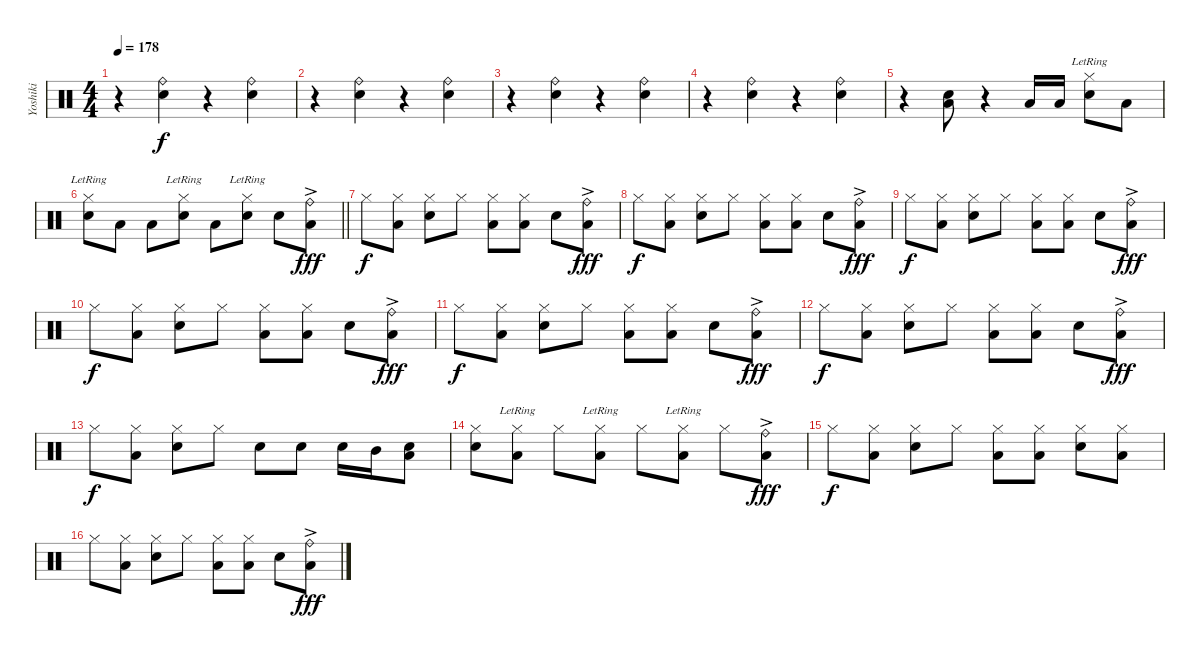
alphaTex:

\track ("Yoshiki" "Yoshiki") {instrument percussion}
\staff {score}
\articulation defaults
\ts (4 4)
\tempo 178
\clef neutral
\ks c
r.4{dy f} ("Snare (hit) 2" "Ride (bell)").4 r.4 ("Snare (hit) 2" "Ride (bell)").4 |
r.4 ("Snare (hit) 2" "Ride (bell)").4 r.4 ("Snare (hit) 2" "Ride (bell)").4 |
r.4 ("Snare (hit) 2" "Ride (bell)").4 r.4 ("Snare (hit) 2" "Ride (bell)").4 |
r.4 ("Snare (hit) 2" "Ride (bell)").4 r.4 ("Snare (hit) 2" "Ride (bell)").4 |
r.4 ("Snare (hit) 2" "Low Tom (hit)").8 r.4 "Low Floor Tom (hit)".16 "Low Floor Tom (hit)".16 ("Hi-Hat (closed)"{lr} "Snare (hit) 2").8 "Low Floor Tom (hit)".8 |
\barLineRight lightlight
("Hi-Hat (closed)"{lr} "Snare (hit) 2").8 "Low Floor Tom (hit)".8 "Low Floor Tom (hit)".8 ("Hi-Hat (closed)"{lr} "Snare (hit) 2").8 "Low Floor Tom (hit)".8 ("Hi-Hat (closed)"{lr} "Snare (hit) 2").8 "Snare (hit) 2".8 ("Ride (bell)"{ac} "Low Floor Tom (hit)").8{dy fff} |
"Hi-Hat (closed)".8{dy f} ("Hi-Hat (closed)" "Low Floor Tom (hit)").8 ("Hi-Hat (closed)" "Snare (hit) 2").8 "Hi-Hat (closed)".8 ("Hi-Hat (closed)" "Low Floor Tom (hit)").8 ("Hi-Hat (closed)" "Low Floor Tom (hit)").8 "Snare (hit) 2".8 ("Ride (bell)"{ac} "Low Floor Tom (hit)").8{dy fff} |
"Hi-Hat (closed)".8{dy f} ("Hi-Hat (closed)" "Low Floor Tom (hit)").8 ("Hi-Hat (closed)" "Snare (hit) 2").8 "Hi-Hat (closed)".8 ("Hi-Hat (closed)" "Low Floor Tom (hit)").8 ("Hi-Hat (closed)" "Low Floor Tom (hit)").8 "Snare (hit) 2".8 ("Ride (bell)"{ac} "Low Floor Tom (hit)").8{dy fff} |
"Hi-Hat (closed)".8{dy f} ("Hi-Hat (closed)" "Low Floor Tom (hit)").8 ("Hi-Hat (closed)" "Snare (hit) 2").8 "Hi-Hat (closed)".8 ("Hi-Hat (closed)" "Low Floor Tom (hit)").8 ("Hi-Hat (closed)" "Low Floor Tom (hit)").8 "Snare (hit) 2".8 ("Ride (bell)"{ac} "Low Floor Tom (hit)").8{dy fff} |
"Hi-Hat (closed)".8{dy f} ("Hi-Hat (closed)" "Low Floor Tom (hit)").8 ("Hi-Hat (closed)" "Snare (hit) 2").8 "Hi-Hat (closed)".8 ("Hi-Hat (closed)" "Low Floor Tom (hit)").8 ("Hi-Hat (closed)" "Low Floor Tom (hit)").8 "Snare (hit) 2".8 ("Ride (bell)"{ac} "Low Floor Tom (hit)").8{dy fff} |
"Hi-Hat (closed)".8{dy f} ("Hi-Hat (closed)" "Low Floor Tom (hit)").8 ("Hi-Hat (closed)" "Snare (hit) 2").8 "Hi-Hat (closed)".8 ("Hi-Hat (closed)" "Low Floor Tom (hit)").8 ("Hi-Hat (closed)" "Low Floor Tom (hit)").8 "Snare (hit) 2".8 ("Ride (bell)"{ac} "Low Floor Tom (hit)").8{dy fff} |
"Hi-Hat (closed)".8{dy f} ("Hi-Hat (closed)" "Low Floor Tom (hit)").8 ("Hi-Hat (closed)" "Snare (hit) 2").8 "Hi-Hat (closed)".8 ("Hi-Hat (closed)" "Low Floor Tom (hit)").8 ("Hi-Hat (closed)" "Low Floor Tom (hit)").8 "Snare (hit) 2".8 ("Ride (bell)"{ac} "Low Floor Tom (hit)").8{dy fff} |
"Hi-Hat (closed)".8{dy f} ("Hi-Hat (closed)" "Low Floor Tom (hit)").8 ("Hi-Hat (closed)" "Snare (hit) 2").8 "Hi-Hat (closed)".8 "Snare (hit) 2".8 "Snare (hit) 2".8 "Snare (hit) 2".16 "Mid Tom (hit)".16 ("Low Floor Tom (hit)" "Snare (hit) 2").8 |
("Hi-Hat (closed)" "Snare (hit) 2").8 ("Hi-Hat (closed)"{lr} "Low Floor Tom (hit)").8 "Hi-Hat (closed)".8 ("Hi-Hat (closed)"{lr} "Low Floor Tom (hit)").8 "Hi-Hat (closed)".8 ("Hi-Hat (closed)"{lr} "Low Floor Tom (hit)").8 "Hi-Hat (closed)".8 ("Ride (bell)"{ac} "Low Floor Tom (hit)").8{dy fff} |
"Hi-Hat (closed)".8{dy f} ("Hi-Hat (closed)" "Low Floor Tom (hit)").8 ("Hi-Hat (closed)" "Snare (hit) 2").8 "Hi-Hat (closed)".8 ("Hi-Hat (closed)" "Low Floor Tom (hit)").8 ("Hi-Hat (closed)" "Low Floor Tom (hit)").8 ("Hi-Hat (closed)" "Snare (hit) 2").8 ("Hi-Hat (closed)" "Low Floor Tom (hit)").8 |
"Hi-Hat (closed)".8 ("Hi-Hat (closed)" "Low Floor Tom (hit)").8 ("Hi-Hat (closed)" "Snare (hit) 2").8 "Hi-Hat (closed)".8 ("Hi-Hat (closed)" "Low Floor Tom (hit)").8 ("Hi-Hat (closed)" "Low Floor Tom (hit)").8 "Snare (hit) 2".8 ("Ride (bell)"{ac} "Low Floor Tom (hit)").8{dy fff}
